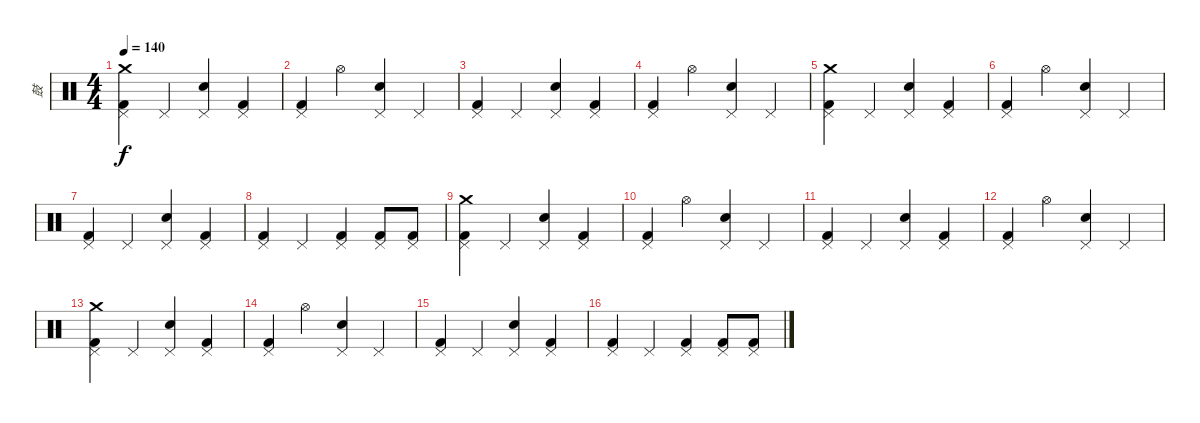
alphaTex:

\track ("鼓" "鼓") {instrument percussion}
\staff {score}
\articulation defaults
\ts (4 4)
\tempo 140
\clef neutral
\ks c
("Crash medium (hit)" "Pedal Hi-Hat (hit)" "Kick (hit) 2").4{dy f} "Pedal Hi-Hat (hit)".4 ("Pedal Hi-Hat (hit)" "Snare (hit) 2").4 ("Pedal Hi-Hat (hit)" "Kick (hit) 2").4 |
("Pedal Hi-Hat (hit)" "Kick (hit) 2").4 "Hi-Hat (open)".4 ("Pedal Hi-Hat (hit)" "Snare (hit) 2").4 "Pedal Hi-Hat (hit)".4 |
("Pedal Hi-Hat (hit)" "Kick (hit) 2").4 "Pedal Hi-Hat (hit)".4 ("Pedal Hi-Hat (hit)" "Snare (hit) 2").4 ("Pedal Hi-Hat (hit)" "Kick (hit) 2").4 |
("Pedal Hi-Hat (hit)" "Kick (hit) 2").4 "Hi-Hat (open)".4 ("Pedal Hi-Hat (hit)" "Snare (hit) 2").4 "Pedal Hi-Hat (hit)".4 |
("Crash medium (hit)" "Pedal Hi-Hat (hit)" "Kick (hit) 2").4 "Pedal Hi-Hat (hit)".4 ("Pedal Hi-Hat (hit)" "Snare (hit) 2").4 ("Pedal Hi-Hat (hit)" "Kick (hit) 2").4 |
("Pedal Hi-Hat (hit)" "Kick (hit) 2").4 "Hi-Hat (open)".4 ("Pedal Hi-Hat (hit)" "Snare (hit) 2").4 "Pedal Hi-Hat (hit)".4 |
("Pedal Hi-Hat (hit)" "Kick (hit) 2").4 "Pedal Hi-Hat (hit)".4 ("Pedal Hi-Hat (hit)" "Snare (hit) 2").4 ("Pedal Hi-Hat (hit)" "Kick (hit) 2").4 |
("Pedal Hi-Hat (hit)" "Kick (hit) 2").4 "Pedal Hi-Hat (hit)".4 ("Pedal Hi-Hat (hit)" "Kick (hit) 2").4 ("Pedal Hi-Hat (hit)" "Kick (hit) 2").8 ("Pedal Hi-Hat (hit)" "Kick (hit) 2").8 |
("Crash medium (hit)" "Pedal Hi-Hat (hit)" "Kick (hit) 2").4 "Pedal Hi-Hat (hit)".4 ("Pedal Hi-Hat (hit)" "Snare (hit) 2").4 ("Pedal Hi-Hat (hit)" "Kick (hit) 2").4 |
("Pedal Hi-Hat (hit)" "Kick (hit) 2").4 "Hi-Hat (open)".4 ("Pedal Hi-Hat (hit)" "Snare (hit) 2").4 "Pedal Hi-Hat (hit)".4 |
("Pedal Hi-Hat (hit)" "Kick (hit) 2").4 "Pedal Hi-Hat (hit)".4 ("Pedal Hi-Hat (hit)" "Snare (hit) 2").4 ("Pedal Hi-Hat (hit)" "Kick (hit) 2").4 |
("Pedal Hi-Hat (hit)" "Kick (hit) 2").4 "Hi-Hat (open)".4 ("Pedal Hi-Hat (hit)" "Snare (hit) 2").4 "Pedal Hi-Hat (hit)".4 |
("Crash medium (hit)" "Pedal Hi-Hat (hit)" "Kick (hit) 2").4 "Pedal Hi-Hat (hit)".4 ("Pedal Hi-Hat (hit)" "Snare (hit) 2").4 ("Pedal Hi-Hat (hit)" "Kick (hit) 2").4 |
("Pedal Hi-Hat (hit)" "Kick (hit) 2").4 "Hi-Hat (open)".4 ("Pedal Hi-Hat (hit)" "Snare (hit) 2").4 "Pedal Hi-Hat (hit)".4 |
("Pedal Hi-Hat (hit)" "Kick (hit) 2").4 "Pedal Hi-Hat (hit)".4 ("Pedal Hi-Hat (hit)" "Snare (hit) 2").4 ("Pedal Hi-Hat (hit)" "Kick (hit) 2").4 |
("Pedal Hi-Hat (hit)" "Kick (hit) 2").4 "Pedal Hi-Hat (hit)".4 ("Pedal Hi-Hat (hit)" "Kick (hit) 2").4 ("Pedal Hi-Hat (hit)" "Kick (hit) 2").8 ("Pedal Hi-Hat (hit)" "Kick (hit) 2").8
